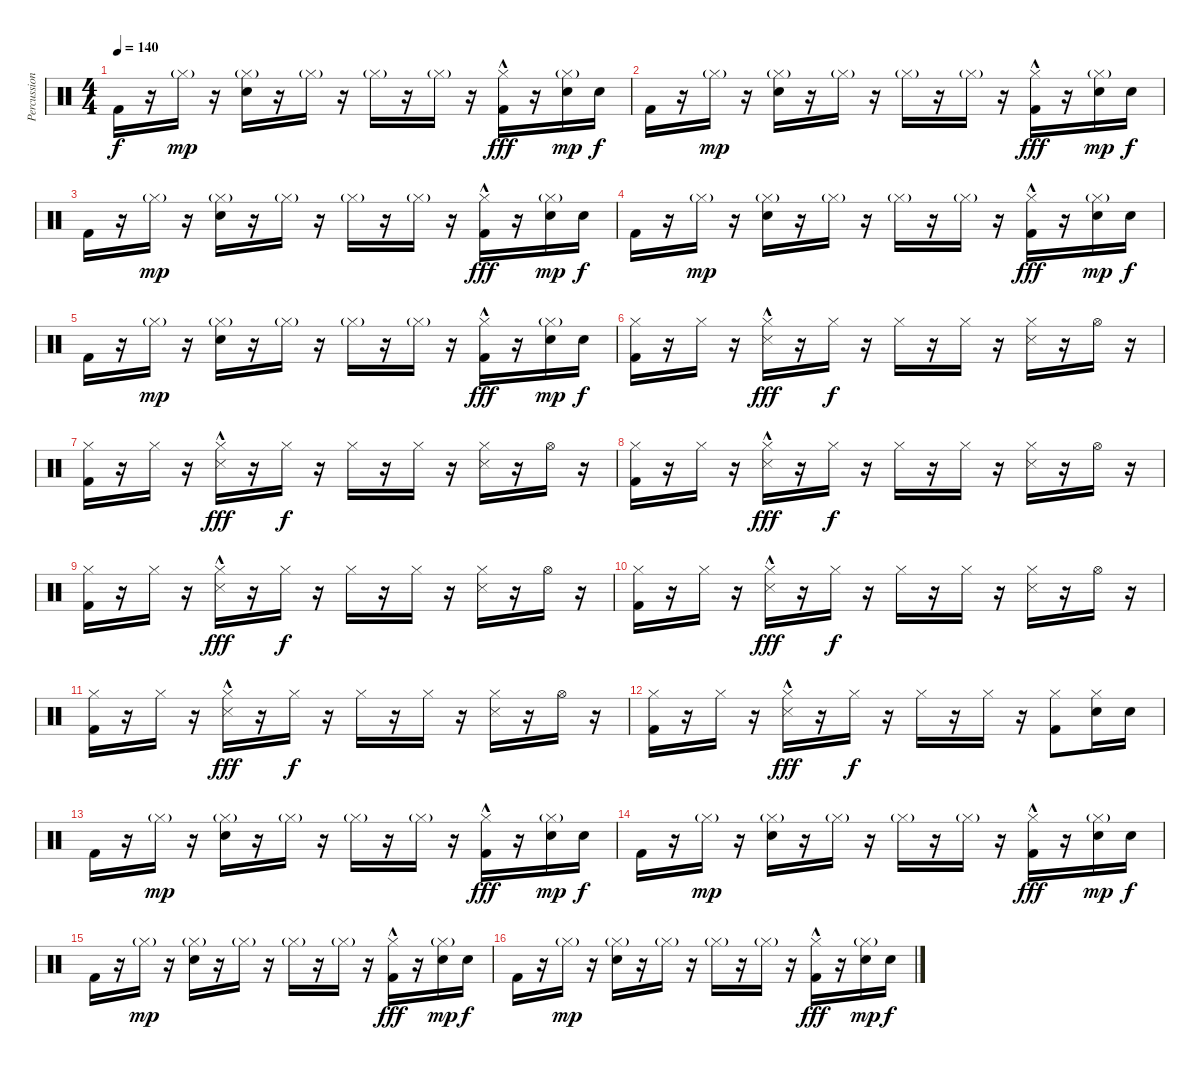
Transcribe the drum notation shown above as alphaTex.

\track ("Percussion" "Percussion") {instrument percussion}
\staff {score}
\articulation defaults
\ts (4 4)
\tempo 140
\clef neutral
\ks c "Kick (hit) 2".16{dy f}
r.16 "Hi-Hat (closed)"{g}.16{dy mp} r.16 ("Hi-Hat (closed)"{g} "Snare (hit) 2").16 r.16 "Hi-Hat (closed)"{g}.16 r.16 "Hi-Hat (closed)"{g}.16 r.16 "Hi-Hat (closed)"{g}.16 r.16 ("Hi-Hat (closed)"{hac} "Kick (hit) 2").16{dy fff} r.16 ("Hi-Hat (closed)"{g} "Snare (hit) 2").16{dy mp} "Snare (hit) 2".16{dy f} |
"Kick (hit) 2".16 r.16 "Hi-Hat (closed)"{g}.16{dy mp} r.16 ("Hi-Hat (closed)"{g} "Snare (hit) 2").16 r.16 "Hi-Hat (closed)"{g}.16 r.16 "Hi-Hat (closed)"{g}.16 r.16 "Hi-Hat (closed)"{g}.16 r.16 ("Hi-Hat (closed)"{hac} "Kick (hit) 2").16{dy fff} r.16 ("Hi-Hat (closed)"{g} "Snare (hit) 2").16{dy mp} "Snare (hit) 2".16{dy f} |
"Kick (hit) 2".16 r.16 "Hi-Hat (closed)"{g}.16{dy mp} r.16 ("Hi-Hat (closed)"{g} "Snare (hit) 2").16 r.16 "Hi-Hat (closed)"{g}.16 r.16 "Hi-Hat (closed)"{g}.16 r.16 "Hi-Hat (closed)"{g}.16 r.16 ("Hi-Hat (closed)"{hac} "Kick (hit) 2").16{dy fff} r.16 ("Hi-Hat (closed)"{g} "Snare (hit) 2").16{dy mp} "Snare (hit) 2".16{dy f} |
"Kick (hit) 2".16 r.16 "Hi-Hat (closed)"{g}.16{dy mp} r.16 ("Hi-Hat (closed)"{g} "Snare (hit) 2").16 r.16 "Hi-Hat (closed)"{g}.16 r.16 "Hi-Hat (closed)"{g}.16 r.16 "Hi-Hat (closed)"{g}.16 r.16 ("Hi-Hat (closed)"{hac} "Kick (hit) 2").16{dy fff} r.16 ("Hi-Hat (closed)"{g} "Snare (hit) 2").16{dy mp} "Snare (hit) 2".16{dy f} |
"Kick (hit) 2".16 r.16 "Hi-Hat (closed)"{g}.16{dy mp} r.16 ("Hi-Hat (closed)"{g} "Snare (hit) 2").16 r.16 "Hi-Hat (closed)"{g}.16 r.16 "Hi-Hat (closed)"{g}.16 r.16 "Hi-Hat (closed)"{g}.16 r.16 ("Hi-Hat (closed)"{hac} "Kick (hit) 2").16{dy fff} r.16 ("Hi-Hat (closed)"{g} "Snare (hit) 2").16{dy mp} "Snare (hit) 2".16{dy f} |
("Hi-Hat (closed)" "Kick (hit) 2").16 r.16 "Hi-Hat (closed)".16 r.16 ("Hi-Hat (closed)"{hac} "Snare (side stick) 3"{hac}).16{dy fff} r.16 "Hi-Hat (closed)".16{dy f} r.16 "Hi-Hat (closed)".16 r.16 "Hi-Hat (closed)".16 r.16 ("Hi-Hat (closed)" "Snare (side stick) 3").16 r.16 "Hi-Hat (open)".16 r.16 |
("Hi-Hat (closed)" "Kick (hit) 2").16 r.16 "Hi-Hat (closed)".16 r.16 ("Hi-Hat (closed)"{hac} "Snare (side stick) 3"{hac}).16{dy fff} r.16 "Hi-Hat (closed)".16{dy f} r.16 "Hi-Hat (closed)".16 r.16 "Hi-Hat (closed)".16 r.16 ("Hi-Hat (closed)" "Snare (side stick) 3").16 r.16 "Hi-Hat (open)".16 r.16 |
("Hi-Hat (closed)" "Kick (hit) 2").16 r.16 "Hi-Hat (closed)".16 r.16 ("Hi-Hat (closed)"{hac} "Snare (side stick) 3"{hac}).16{dy fff} r.16 "Hi-Hat (closed)".16{dy f} r.16 "Hi-Hat (closed)".16 r.16 "Hi-Hat (closed)".16 r.16 ("Hi-Hat (closed)" "Snare (side stick) 3").16 r.16 "Hi-Hat (open)".16 r.16 |
("Hi-Hat (closed)" "Kick (hit) 2").16 r.16 "Hi-Hat (closed)".16 r.16 ("Hi-Hat (closed)"{hac} "Snare (side stick) 3"{hac}).16{dy fff} r.16 "Hi-Hat (closed)".16{dy f} r.16 "Hi-Hat (closed)".16 r.16 "Hi-Hat (closed)".16 r.16 ("Hi-Hat (closed)" "Snare (side stick) 3").16 r.16 "Hi-Hat (open)".16 r.16 |
("Hi-Hat (closed)" "Kick (hit) 2").16 r.16 "Hi-Hat (closed)".16 r.16 ("Hi-Hat (closed)"{hac} "Snare (side stick) 3"{hac}).16{dy fff} r.16 "Hi-Hat (closed)".16{dy f} r.16 "Hi-Hat (closed)".16 r.16 "Hi-Hat (closed)".16 r.16 ("Hi-Hat (closed)" "Snare (side stick) 3").16 r.16 "Hi-Hat (open)".16 r.16 |
("Hi-Hat (closed)" "Kick (hit) 2").16 r.16 "Hi-Hat (closed)".16 r.16 ("Hi-Hat (closed)"{hac} "Snare (side stick) 3"{hac}).16{dy fff} r.16 "Hi-Hat (closed)".16{dy f} r.16 "Hi-Hat (closed)".16 r.16 "Hi-Hat (closed)".16 r.16 ("Hi-Hat (closed)" "Snare (side stick) 3").16 r.16 "Hi-Hat (open)".16 r.16 |
("Hi-Hat (closed)" "Kick (hit) 2").16 r.16 "Hi-Hat (closed)".16 r.16 ("Hi-Hat (closed)"{hac} "Snare (side stick) 3"{hac}).16{dy fff} r.16 "Hi-Hat (closed)".16{dy f} r.16 "Hi-Hat (closed)".16 r.16 "Hi-Hat (closed)".16 r.16 ("Hi-Hat (closed)" "Kick (hit) 2").8 ("Hi-Hat (closed)" "Snare (hit) 2").16 "Snare (hit) 2".16 |
"Kick (hit) 2".16 r.16 "Hi-Hat (closed)"{g}.16{dy mp} r.16 ("Hi-Hat (closed)"{g} "Snare (hit) 2").16 r.16 "Hi-Hat (closed)"{g}.16 r.16 "Hi-Hat (closed)"{g}.16 r.16 "Hi-Hat (closed)"{g}.16 r.16 ("Hi-Hat (closed)"{hac} "Kick (hit) 2").16{dy fff} r.16 ("Hi-Hat (closed)"{g} "Snare (hit) 2").16{dy mp} "Snare (hit) 2".16{dy f} |
"Kick (hit) 2".16 r.16 "Hi-Hat (closed)"{g}.16{dy mp} r.16 ("Hi-Hat (closed)"{g} "Snare (hit) 2").16 r.16 "Hi-Hat (closed)"{g}.16 r.16 "Hi-Hat (closed)"{g}.16 r.16 "Hi-Hat (closed)"{g}.16 r.16 ("Hi-Hat (closed)"{hac} "Kick (hit) 2").16{dy fff} r.16 ("Hi-Hat (closed)"{g} "Snare (hit) 2").16{dy mp} "Snare (hit) 2".16{dy f} |
"Kick (hit) 2".16 r.16 "Hi-Hat (closed)"{g}.16{dy mp} r.16 ("Hi-Hat (closed)"{g} "Snare (hit) 2").16 r.16 "Hi-Hat (closed)"{g}.16 r.16 "Hi-Hat (closed)"{g}.16 r.16 "Hi-Hat (closed)"{g}.16 r.16 ("Hi-Hat (closed)"{hac} "Kick (hit) 2").16{dy fff} r.16 ("Hi-Hat (closed)"{g} "Snare (hit) 2").16{dy mp} "Snare (hit) 2".16{dy f} |
"Kick (hit) 2".16 r.16 "Hi-Hat (closed)"{g}.16{dy mp} r.16 ("Hi-Hat (closed)"{g} "Snare (hit) 2").16 r.16 "Hi-Hat (closed)"{g}.16 r.16 "Hi-Hat (closed)"{g}.16 r.16 "Hi-Hat (closed)"{g}.16 r.16 ("Hi-Hat (closed)"{hac} "Kick (hit) 2").16{dy fff} r.16 ("Hi-Hat (closed)"{g} "Snare (hit) 2").16{dy mp} "Snare (hit) 2".16{dy f}
